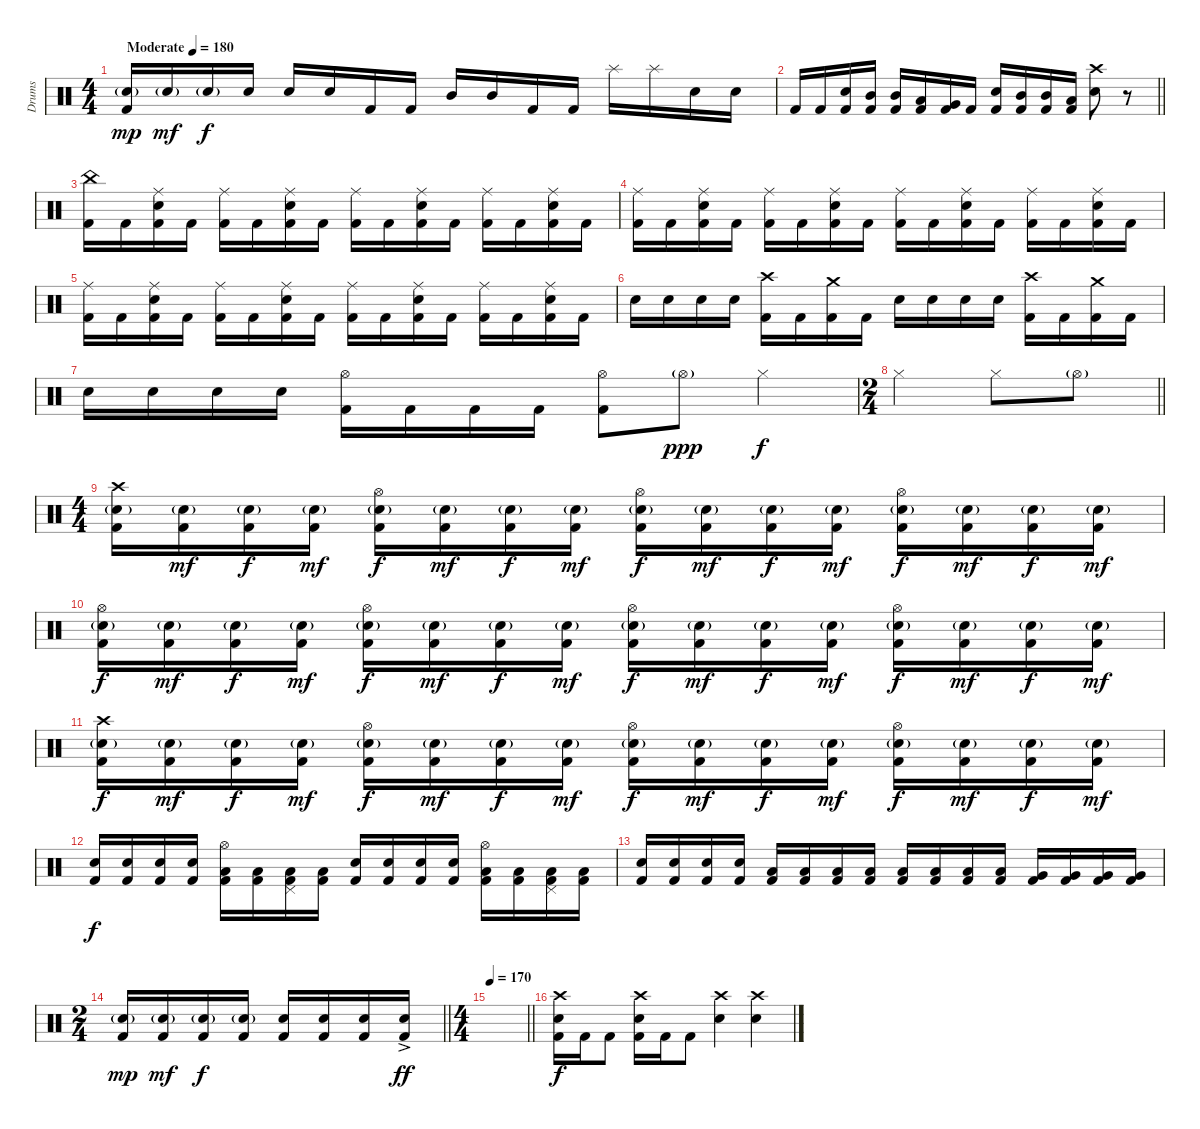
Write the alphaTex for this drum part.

\track ("Drums" "Drums") {instrument percussion}
\staff {score}
\articulation defaults
\ts (4 4)
\section ("" "")
\tempo (180 "Moderate")
\clef neutral
\ks c
("Electric Snare (hit)"{g} "Kick (hit) 2").16{dy mp} "Electric Snare (hit)"{g}.16{dy mf} "Electric Snare (hit)"{g}.16{dy f} "Electric Snare (hit)".16 "Electric Snare (hit)".16 "Electric Snare (hit)".16 "Kick (hit) 2".16 "Kick (hit) 2".16 "Mid Tom (hit)".16 "Mid Tom (hit)".16 "Kick (hit) 2".16 "Kick (hit) 2".16 "Splash (hit)".16 "Splash (hit)".16 "Electric Snare (hit)".16 "Electric Snare (hit)".16 |
\barLineRight lightlight "Kick (hit) 2".16 "Kick (hit) 2".16
("Electric Snare (hit)" "Kick (hit) 2").16 ("Mid Tom (hit)" "Kick (hit) 2").16 ("Mid Tom (hit)" "Kick (hit) 2").16 ("Low Tom (hit)" "Kick (hit) 2").16 ("Very Low Tom (hit)" "Kick (hit) 2").16 "Kick (hit) 2".16 ("Electric Snare (hit)" "Kick (hit) 2").16 ("Mid Tom (hit)" "Kick (hit) 2").16 ("Mid Tom (hit)" "Kick (hit) 2").16 ("Low Tom (hit)" "Kick (hit) 2").16 ("Crash high (hit)" "Electric Snare (hit)").8 r.8 |
\section ("" "")
("China (hit)" "Kick (hit) 2").16 "Kick (hit) 2".16 ("Ride (middle)" "Electric Snare (hit)" "Kick (hit) 2").16 "Kick (hit) 2".16 ("Ride (middle)" "Kick (hit) 2").16 "Kick (hit) 2".16 ("Ride (middle)" "Electric Snare (hit)" "Kick (hit) 2").16 "Kick (hit) 2".16 ("Ride (middle)" "Kick (hit) 2").16 "Kick (hit) 2".16 ("Ride (middle)" "Electric Snare (hit)" "Kick (hit) 2").16 "Kick (hit) 2".16 ("Ride (middle)" "Kick (hit) 2").16 "Kick (hit) 2".16 ("Ride (middle)" "Electric Snare (hit)" "Kick (hit) 2").16 "Kick (hit) 2".16 |
("Ride (middle)" "Kick (hit) 2").16 "Kick (hit) 2".16 ("Ride (middle)" "Electric Snare (hit)" "Kick (hit) 2").16 "Kick (hit) 2".16 ("Ride (middle)" "Kick (hit) 2").16 "Kick (hit) 2".16 ("Ride (middle)" "Electric Snare (hit)" "Kick (hit) 2").16 "Kick (hit) 2".16 ("Ride (middle)" "Kick (hit) 2").16 "Kick (hit) 2".16 ("Ride (middle)" "Electric Snare (hit)" "Kick (hit) 2").16 "Kick (hit) 2".16 ("Ride (middle)" "Kick (hit) 2").16 "Kick (hit) 2".16 ("Ride (middle)" "Electric Snare (hit)" "Kick (hit) 2").16 "Kick (hit) 2".16 |
("Ride (middle)" "Kick (hit) 2").16 "Kick (hit) 2".16 ("Ride (middle)" "Electric Snare (hit)" "Kick (hit) 2").16 "Kick (hit) 2".16 ("Ride (middle)" "Kick (hit) 2").16 "Kick (hit) 2".16 ("Ride (middle)" "Electric Snare (hit)" "Kick (hit) 2").16 "Kick (hit) 2".16 ("Ride (middle)" "Kick (hit) 2").16 "Kick (hit) 2".16 ("Ride (middle)" "Electric Snare (hit)" "Kick (hit) 2").16 "Kick (hit) 2".16 ("Ride (middle)" "Kick (hit) 2").16 "Kick (hit) 2".16 ("Ride (middle)" "Electric Snare (hit)" "Kick (hit) 2").16 "Kick (hit) 2".16 |
"Electric Snare (hit)".16 "Electric Snare (hit)".16 "Electric Snare (hit)".16 "Electric Snare (hit)".16 ("Crash high (hit)" "Kick (hit) 2").16 "Kick (hit) 2".16 ("Crash medium (hit)" "Kick (hit) 2").16 "Kick (hit) 2".16 "Electric Snare (hit)".16 "Electric Snare (hit)".16 "Electric Snare (hit)".16 "Electric Snare (hit)".16 ("Crash high (hit)" "Kick (hit) 2").16 "Kick (hit) 2".16 ("Crash medium (hit)" "Kick (hit) 2").16 "Kick (hit) 2".16 |
"Electric Snare (hit)".16 "Electric Snare (hit)".16 "Electric Snare (hit)".16 "Electric Snare (hit)".16 ("Hi-Hat (open)" "Kick (hit) 2").16 "Kick (hit) 2".16 "Kick (hit) 2".16 "Kick (hit) 2".16 ("Hi-Hat (open)" "Kick (hit) 2").8 "Hi-Hat (open)"{g}.8{dy ppp} "Hi-Hat (closed)".4{dy f} |
\ts (2 4)
\barLineRight lightlight "Hi-Hat (closed)".4 "Hi-Hat (closed)".8 "Hi-Hat (open)"{g}.8
|
\ts (4 4)
("Crash high (hit)" "Electric Snare (hit)"{g} "Kick (hit) 2").16 ("Electric Snare (hit)"{g} "Kick (hit) 2").16{dy mf} ("Electric Snare (hit)"{g} "Kick (hit) 2").16{dy f} ("Electric Snare (hit)"{g} "Kick (hit) 2").16{dy mf} ("Hi-Hat (open)" "Electric Snare (hit)"{g} "Kick (hit) 2").16{dy f} ("Electric Snare (hit)"{g} "Kick (hit) 2").16{dy mf} ("Electric Snare (hit)"{g} "Kick (hit) 2").16{dy f} ("Electric Snare (hit)"{g} "Kick (hit) 2").16{dy mf} ("Hi-Hat (open)" "Electric Snare (hit)"{g} "Kick (hit) 2").16{dy f} ("Electric Snare (hit)"{g} "Kick (hit) 2").16{dy mf} ("Electric Snare (hit)"{g} "Kick (hit) 2").16{dy f} ("Electric Snare (hit)"{g} "Kick (hit) 2").16{dy mf} ("Hi-Hat (open)" "Electric Snare (hit)"{g} "Kick (hit) 2").16{dy f} ("Electric Snare (hit)"{g} "Kick (hit) 2").16{dy mf} ("Electric Snare (hit)"{g} "Kick (hit) 2").16{dy f} ("Electric Snare (hit)"{g} "Kick (hit) 2").16{dy mf} |
("Hi-Hat (open)" "Electric Snare (hit)"{g} "Kick (hit) 2").16{dy f} ("Electric Snare (hit)"{g} "Kick (hit) 2").16{dy mf} ("Electric Snare (hit)"{g} "Kick (hit) 2").16{dy f} ("Electric Snare (hit)"{g} "Kick (hit) 2").16{dy mf} ("Hi-Hat (open)" "Electric Snare (hit)"{g} "Kick (hit) 2").16{dy f} ("Electric Snare (hit)"{g} "Kick (hit) 2").16{dy mf} ("Electric Snare (hit)"{g} "Kick (hit) 2").16{dy f} ("Electric Snare (hit)"{g} "Kick (hit) 2").16{dy mf} ("Hi-Hat (open)" "Electric Snare (hit)"{g} "Kick (hit) 2").16{dy f} ("Electric Snare (hit)"{g} "Kick (hit) 2").16{dy mf} ("Electric Snare (hit)"{g} "Kick (hit) 2").16{dy f} ("Electric Snare (hit)"{g} "Kick (hit) 2").16{dy mf} ("Hi-Hat (open)" "Electric Snare (hit)"{g} "Kick (hit) 2").16{dy f} ("Electric Snare (hit)"{g} "Kick (hit) 2").16{dy mf} ("Electric Snare (hit)"{g} "Kick (hit) 2").16{dy f} ("Electric Snare (hit)"{g} "Kick (hit) 2").16{dy mf} |
("Crash high (hit)" "Electric Snare (hit)"{g} "Kick (hit) 2").16{dy f} ("Electric Snare (hit)"{g} "Kick (hit) 2").16{dy mf} ("Electric Snare (hit)"{g} "Kick (hit) 2").16{dy f} ("Electric Snare (hit)"{g} "Kick (hit) 2").16{dy mf} ("Hi-Hat (open)" "Electric Snare (hit)"{g} "Kick (hit) 2").16{dy f} ("Electric Snare (hit)"{g} "Kick (hit) 2").16{dy mf} ("Electric Snare (hit)"{g} "Kick (hit) 2").16{dy f} ("Electric Snare (hit)"{g} "Kick (hit) 2").16{dy mf} ("Hi-Hat (open)" "Electric Snare (hit)"{g} "Kick (hit) 2").16{dy f} ("Electric Snare (hit)"{g} "Kick (hit) 2").16{dy mf} ("Electric Snare (hit)"{g} "Kick (hit) 2").16{dy f} ("Electric Snare (hit)"{g} "Kick (hit) 2").16{dy mf} ("Hi-Hat (open)" "Electric Snare (hit)"{g} "Kick (hit) 2").16{dy f} ("Electric Snare (hit)"{g} "Kick (hit) 2").16{dy mf} ("Electric Snare (hit)"{g} "Kick (hit) 2").16{dy f} ("Electric Snare (hit)"{g} "Kick (hit) 2").16{dy mf} |
("Electric Snare (hit)" "Kick (hit) 2").16{dy f} ("Electric Snare (hit)" "Kick (hit) 2").16 ("Electric Snare (hit)" "Kick (hit) 2").16 ("Electric Snare (hit)" "Kick (hit) 2").16 ("Hi-Hat (open)" "Low Tom (hit)" "Kick (hit) 2").16 ("Low Tom (hit)" "Kick (hit) 2").16 ("Pedal Hi-Hat (hit)" "Low Tom (hit)" "Kick (hit) 2").16 ("Low Tom (hit)" "Kick (hit) 2").16 ("Electric Snare (hit)" "Kick (hit) 2").16 ("Electric Snare (hit)" "Kick (hit) 2").16 ("Electric Snare (hit)" "Kick (hit) 2").16 ("Electric Snare (hit)" "Kick (hit) 2").16 ("Hi-Hat (open)" "Low Tom (hit)" "Kick (hit) 2").16 ("Low Tom (hit)" "Kick (hit) 2").16 ("Pedal Hi-Hat (hit)" "Low Tom (hit)" "Kick (hit) 2").16 ("Low Tom (hit)" "Kick (hit) 2").16 |
("Electric Snare (hit)" "Kick (hit) 2").16 ("Electric Snare (hit)" "Kick (hit) 2").16 ("Electric Snare (hit)" "Kick (hit) 2").16 ("Electric Snare (hit)" "Kick (hit) 2").16 ("Low Tom (hit)" "Kick (hit) 2").16 ("Low Tom (hit)" "Kick (hit) 2").16 ("Low Tom (hit)" "Kick (hit) 2").16 ("Low Tom (hit)" "Kick (hit) 2").16 ("Low Tom (hit)" "Kick (hit) 2").16 ("Low Tom (hit)" "Kick (hit) 2").16 ("Low Tom (hit)" "Kick (hit) 2").16 ("Low Tom (hit)" "Kick (hit) 2").16 ("Very Low Tom (hit)" "Kick (hit) 2").16 ("Very Low Tom (hit)" "Kick (hit) 2").16 ("Very Low Tom (hit)" "Kick (hit) 2").16 ("Very Low Tom (hit)" "Kick (hit) 2").16 |
\ts (2 4)
\barLineRight lightlight
("Electric Snare (hit)"{g} "Kick (hit) 2").16{dy mp} ("Electric Snare (hit)"{g} "Kick (hit) 2").16{dy mf} ("Electric Snare (hit)"{g} "Kick (hit) 2").16{dy f} ("Electric Snare (hit)"{g} "Kick (hit) 2").16 ("Electric Snare (hit)" "Kick (hit) 2").16 ("Electric Snare (hit)" "Kick (hit) 2").16 ("Electric Snare (hit)" "Kick (hit) 2").16 ("Electric Snare (hit)"{ac} "Kick (hit) 2").16{dy ff} |
\ts (4 4)
\tempo 170
\barLineRight lightlight
|
\section ("" "")
("Crash high (hit)" "Electric Snare (hit)" "Kick (hit) 2").16{dy f} "Kick (hit) 2".16 "Kick (hit) 2".8 ("Crash high (hit)" "Electric Snare (hit)" "Kick (hit) 2").16 "Kick (hit) 2".16 "Kick (hit) 2".8 ("Crash high (hit)" "Electric Snare (hit)").4 ("Crash high (hit)" "Electric Snare (hit)").4
